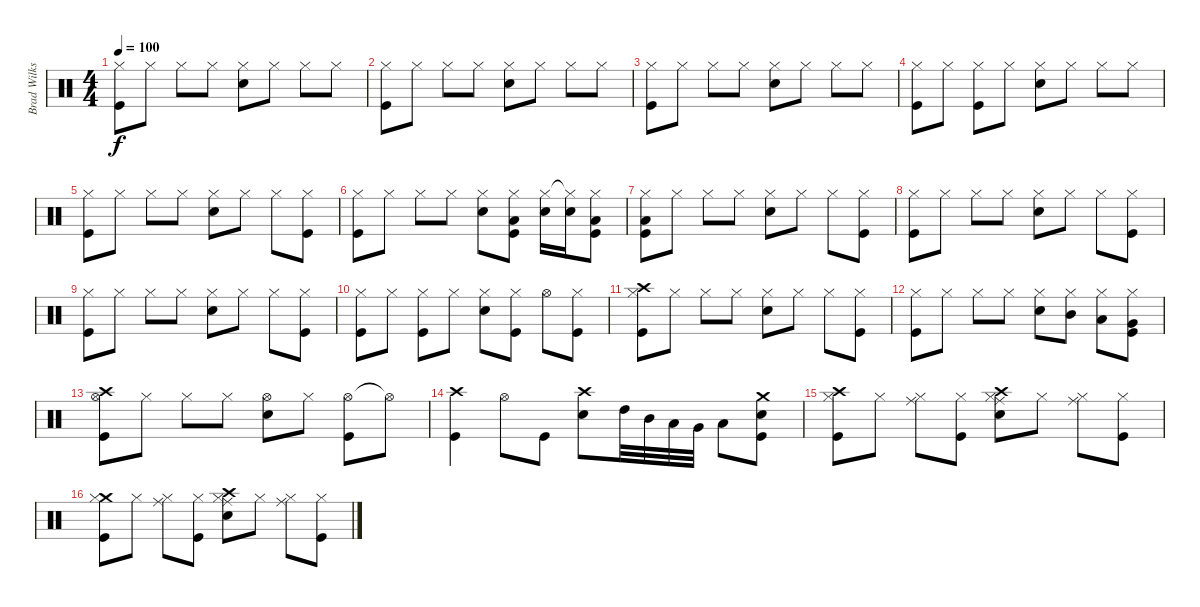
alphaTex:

\track ("Brad Wilks (Percussion)" "Brad Wilks") {instrument percussion}
\staff {score}
\articulation defaults
\ts (4 4)
\tempo 100
\clef neutral
\ks c
("Hi-Hat (closed)" "Kick (hit)").8{dy f} "Hi-Hat (closed)".8 "Hi-Hat (closed)".8 "Hi-Hat (closed)".8 ("Hi-Hat (closed)" "Electric Snare (hit)").8 "Hi-Hat (closed)".8 "Hi-Hat (closed)".8 "Hi-Hat (closed)".8 |
("Hi-Hat (closed)" "Kick (hit)").8 "Hi-Hat (closed)".8 "Hi-Hat (closed)".8 "Hi-Hat (closed)".8 ("Hi-Hat (closed)" "Electric Snare (hit)").8 "Hi-Hat (closed)".8 "Hi-Hat (closed)".8 "Hi-Hat (closed)".8 |
("Hi-Hat (closed)" "Kick (hit)").8 "Hi-Hat (closed)".8 "Hi-Hat (closed)".8 "Hi-Hat (closed)".8 ("Hi-Hat (closed)" "Electric Snare (hit)").8 "Hi-Hat (closed)".8 "Hi-Hat (closed)".8 "Hi-Hat (closed)".8 |
("Hi-Hat (closed)" "Kick (hit)").8 "Hi-Hat (closed)".8 ("Hi-Hat (closed)" "Kick (hit)").8 "Hi-Hat (closed)".8 ("Hi-Hat (closed)" "Electric Snare (hit)").8 "Hi-Hat (closed)".8 "Hi-Hat (closed)".8 "Hi-Hat (closed)".8 |
("Hi-Hat (closed)" "Kick (hit)").8 "Hi-Hat (closed)".8 "Hi-Hat (closed)".8 "Hi-Hat (closed)".8 ("Hi-Hat (closed)" "Electric Snare (hit)").8 "Hi-Hat (closed)".8 "Hi-Hat (closed)".8 ("Hi-Hat (closed)" "Kick (hit)").8 |
("Hi-Hat (closed)" "Kick (hit)").8 "Hi-Hat (closed)".8 "Hi-Hat (closed)".8 "Hi-Hat (closed)".8 ("Hi-Hat (closed)" "Electric Snare (hit)").8 ("Hi-Hat (closed)" "Low Floor Tom (hit)" "Kick (hit)").8 ("Hi-Hat (closed)" "Electric Snare (hit)").16 ("Hi-Hat (closed)"{t} "Electric Snare (hit)").16 ("Hi-Hat (closed)" "Low Floor Tom (hit)" "Kick (hit)").8 |
("Hi-Hat (closed)" "Low Floor Tom (hit)" "Kick (hit)").8 "Hi-Hat (closed)".8 "Hi-Hat (closed)".8 "Hi-Hat (closed)".8 ("Hi-Hat (closed)" "Electric Snare (hit)").8 "Hi-Hat (closed)".8 "Hi-Hat (closed)".8 ("Hi-Hat (closed)" "Kick (hit)").8 |
("Hi-Hat (closed)" "Kick (hit)").8 "Hi-Hat (closed)".8 "Hi-Hat (closed)".8 "Hi-Hat (closed)".8 ("Hi-Hat (closed)" "Electric Snare (hit)").8 "Hi-Hat (closed)".8 "Hi-Hat (closed)".8 ("Hi-Hat (closed)" "Kick (hit)").8 |
("Hi-Hat (closed)" "Kick (hit)").8 "Hi-Hat (closed)".8 "Hi-Hat (closed)".8 "Hi-Hat (closed)".8 ("Hi-Hat (closed)" "Electric Snare (hit)").8 "Hi-Hat (closed)".8 "Hi-Hat (closed)".8 ("Hi-Hat (closed)" "Kick (hit)").8 |
("Hi-Hat (closed)" "Kick (hit)").8 "Hi-Hat (closed)".8 ("Hi-Hat (closed)" "Kick (hit)").8 "Hi-Hat (closed)".8 ("Hi-Hat (closed)" "Electric Snare (hit)").8 ("Hi-Hat (closed)" "Kick (hit)").8 "Hi-Hat (open)".8 ("Hi-Hat (closed)" "Kick (hit)").8 |
("Crash high (hit)" "Hi-Hat (closed)" "Kick (hit)").8 "Hi-Hat (closed)".8 "Hi-Hat (closed)".8 "Hi-Hat (closed)".8 ("Hi-Hat (closed)" "Electric Snare (hit)").8 "Hi-Hat (closed)".8 "Hi-Hat (closed)".8 ("Hi-Hat (closed)" "Kick (hit)").8 |
("Hi-Hat (closed)" "Kick (hit)").8 "Hi-Hat (closed)".8 "Hi-Hat (closed)".8 "Hi-Hat (closed)".8 ("Hi-Hat (closed)" "Electric Snare (hit)").8 ("Hi-Hat (closed)" "Mid Tom (hit)").8 ("Hi-Hat (closed)" "Low Tom (hit)").8 ("Hi-Hat (closed)" "Very Low Tom (hit)" "Kick (hit)").8 |
("Crash high (hit)" "Hi-Hat (open)" "Kick (hit)").8 "Hi-Hat (closed)".8 "Hi-Hat (closed)".8 "Hi-Hat (closed)".8 ("Hi-Hat (open)" "Electric Snare (hit)").8 "Hi-Hat (closed)".8 ("Hi-Hat (open)" "Kick (hit)").8 "Hi-Hat (open)"{t}.8 |
("Crash high (hit)" "Kick (hit)").4 "Hi-Hat (open)".8 "Kick (hit)".8 ("Crash high (hit)" "Electric Snare (hit)").8 "High Tom (hit)".32 "Mid Tom (hit)".32 "Low Tom (hit)".32 "Very Low Tom (hit)".32 "Low Floor Tom (hit)".8 ("Crash medium (hit)" "Electric Snare (hit)" "Kick (hit)").8 |
("Crash high (hit)" "Hi-Hat (closed)" "Kick (hit)").8 "Hi-Hat (closed)".8 ("Ride (middle)" "Hi-Hat (closed)").8 ("Hi-Hat (closed)" "Kick (hit)").8 ("Ride (middle)" "Hi-Hat (closed)" "Snare (hit) 2" "Crash high (hit)").8 "Hi-Hat (closed)".8 ("Ride (middle)" "Hi-Hat (closed)").8 ("Hi-Hat (closed)" "Kick (hit)").8 |
("Crash medium (hit)" "Hi-Hat (closed)" "Kick (hit)").8 "Hi-Hat (closed)".8 ("Ride (middle)" "Hi-Hat (closed)").8 ("Hi-Hat (closed)" "Kick (hit)").8 ("Ride (middle)" "Hi-Hat (closed)" "Snare (hit) 2" "Crash high (hit)").8 "Hi-Hat (closed)".8 ("Ride (middle)" "Hi-Hat (closed)").8 ("Hi-Hat (closed)" "Kick (hit)").8
